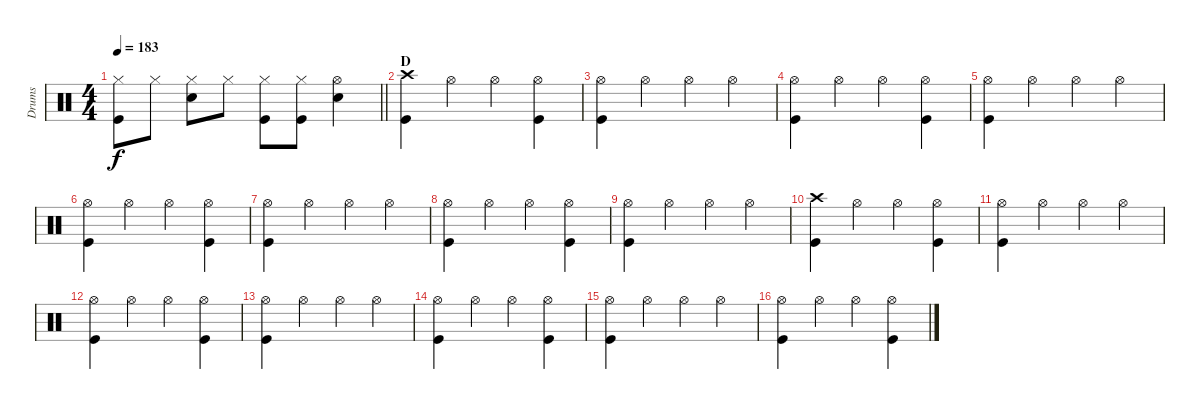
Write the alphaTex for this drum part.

\track ("Drums" "Drums") {instrument percussion}
\staff {score}
\articulation defaults
\ts (4 4)
\tempo 183
\clef neutral
\barLineRight lightlight
\ks c
("Hi-Hat (closed)" "Kick (hit)").8{dy f} "Hi-Hat (closed)".8 ("Hi-Hat (closed)" "Electric Snare (hit)").8 "Hi-Hat (closed)".8 ("Hi-Hat (closed)" "Kick (hit)").8 ("Hi-Hat (closed)" "Kick (hit)").8 ("Hi-Hat (open)" "Electric Snare (hit)").4 |
\section ("" "D")
("Crash high (hit)" "Kick (hit)").4 "Hi-Hat (open)".4 "Hi-Hat (open)".4 ("Hi-Hat (open)" "Kick (hit)").4 |
("Hi-Hat (open)" "Kick (hit)").4 "Hi-Hat (open)".4 "Hi-Hat (open)".4 "Hi-Hat (open)".4 |
("Hi-Hat (open)" "Kick (hit)").4 "Hi-Hat (open)".4 "Hi-Hat (open)".4 ("Hi-Hat (open)" "Kick (hit)").4 |
("Hi-Hat (open)" "Kick (hit)").4 "Hi-Hat (open)".4 "Hi-Hat (open)".4 "Hi-Hat (open)".4 |
("Hi-Hat (open)" "Kick (hit)").4 "Hi-Hat (open)".4 "Hi-Hat (open)".4 ("Hi-Hat (open)" "Kick (hit)").4 |
("Hi-Hat (open)" "Kick (hit)").4 "Hi-Hat (open)".4 "Hi-Hat (open)".4 "Hi-Hat (open)".4 |
("Hi-Hat (open)" "Kick (hit)").4 "Hi-Hat (open)".4 "Hi-Hat (open)".4 ("Hi-Hat (open)" "Kick (hit)").4 |
("Hi-Hat (open)" "Kick (hit)").4 "Hi-Hat (open)".4 "Hi-Hat (open)".4 "Hi-Hat (open)".4 |
("Crash high (hit)" "Kick (hit)").4 "Hi-Hat (open)".4 "Hi-Hat (open)".4 ("Hi-Hat (open)" "Kick (hit)").4 |
("Hi-Hat (open)" "Kick (hit)").4 "Hi-Hat (open)".4 "Hi-Hat (open)".4 "Hi-Hat (open)".4 |
("Hi-Hat (open)" "Kick (hit)").4 "Hi-Hat (open)".4 "Hi-Hat (open)".4 ("Hi-Hat (open)" "Kick (hit)").4 |
("Hi-Hat (open)" "Kick (hit)").4 "Hi-Hat (open)".4 "Hi-Hat (open)".4 "Hi-Hat (open)".4 |
("Hi-Hat (open)" "Kick (hit)").4 "Hi-Hat (open)".4 "Hi-Hat (open)".4 ("Hi-Hat (open)" "Kick (hit)").4 |
("Hi-Hat (open)" "Kick (hit)").4 "Hi-Hat (open)".4 "Hi-Hat (open)".4 "Hi-Hat (open)".4 |
("Hi-Hat (open)" "Kick (hit)").4 "Hi-Hat (open)".4 "Hi-Hat (open)".4 ("Hi-Hat (open)" "Kick (hit)").4
